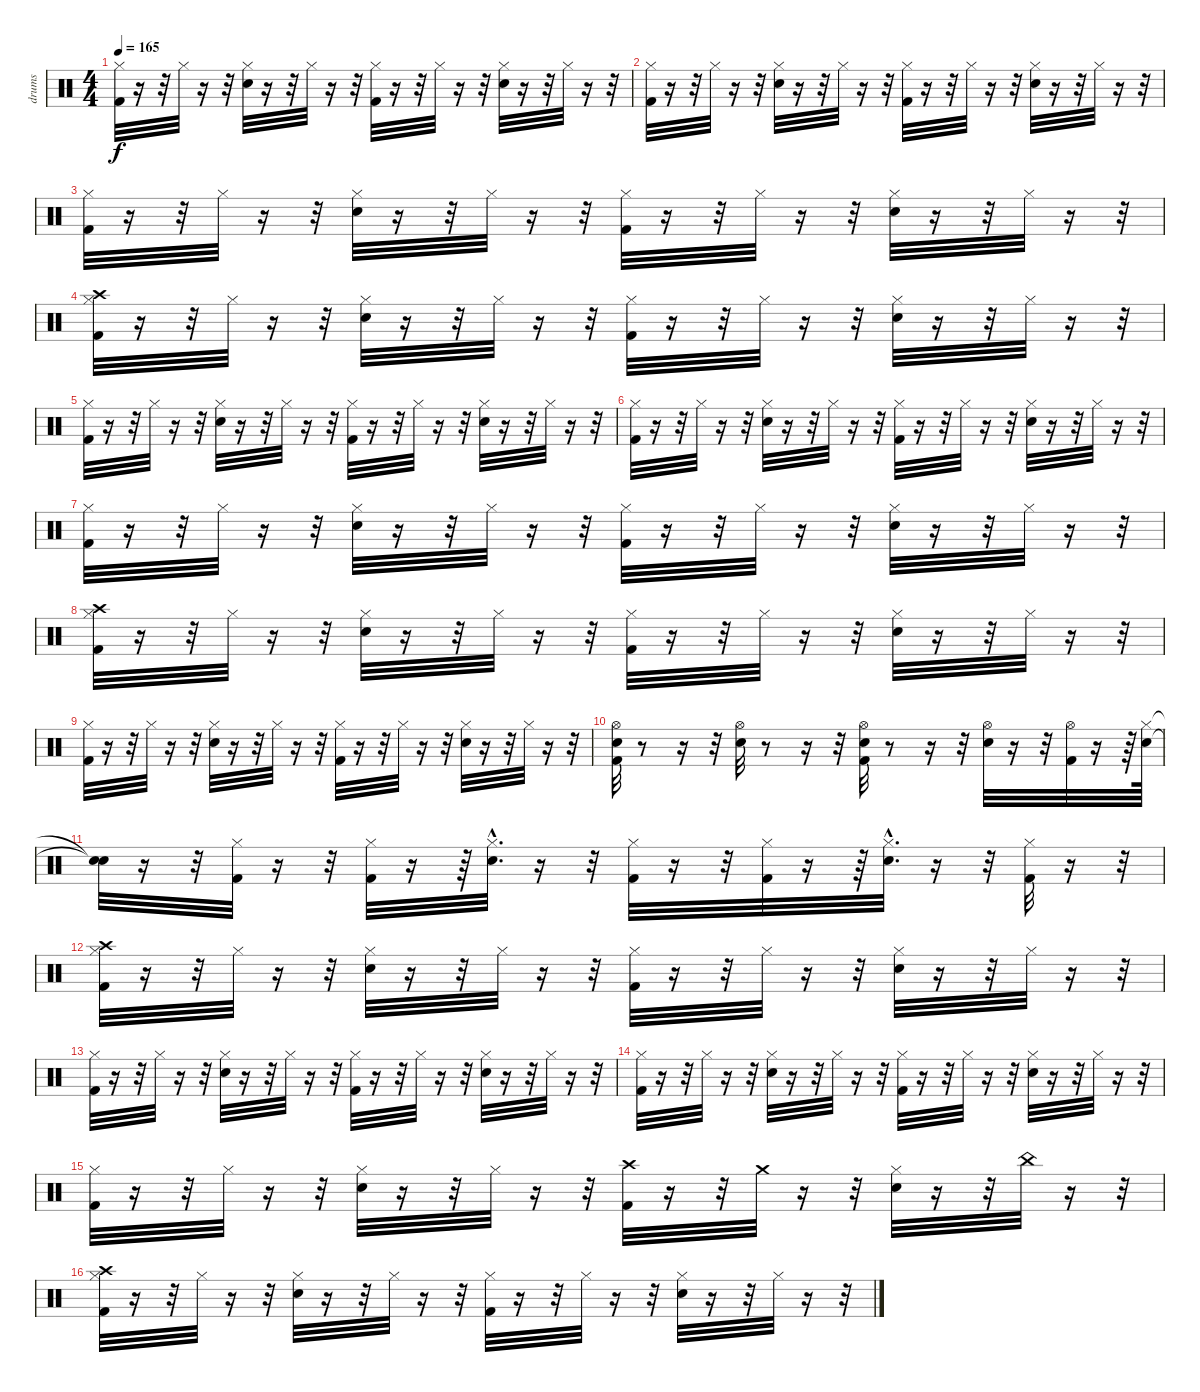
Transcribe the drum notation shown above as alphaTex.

\track ("drums" "drums") {instrument percussion}
\staff {score}
\articulation defaults
\ts (4 4)
\tempo 165
\clef neutral
\ks c
("Hi-Hat (closed)" "Kick (hit) 2").32{dy f} r.16 r.32 "Hi-Hat (closed)".32 r.16 r.32 ("Hi-Hat (closed)" "Electric Snare (hit)").32 r.16 r.32 "Hi-Hat (closed)".32 r.16 r.32 ("Hi-Hat (closed)" "Kick (hit) 2").32 r.16 r.32 "Hi-Hat (closed)".32 r.16 r.32 ("Hi-Hat (closed)" "Electric Snare (hit)").32 r.16 r.32 "Hi-Hat (closed)".32 r.16 r.32 |
("Hi-Hat (closed)" "Kick (hit) 2").32 r.16 r.32 "Hi-Hat (closed)".32 r.16 r.32 ("Hi-Hat (closed)" "Electric Snare (hit)").32 r.16 r.32 "Hi-Hat (closed)".32 r.16 r.32 ("Hi-Hat (closed)" "Kick (hit) 2").32 r.16 r.32 "Hi-Hat (closed)".32 r.16 r.32 ("Hi-Hat (closed)" "Electric Snare (hit)").32 r.16 r.32 "Hi-Hat (closed)".32 r.16 r.32 |
("Hi-Hat (closed)" "Kick (hit) 2").32 r.16 r.32 "Hi-Hat (closed)".32 r.16 r.32 ("Hi-Hat (closed)" "Electric Snare (hit)").32 r.16 r.32 "Hi-Hat (closed)".32 r.16 r.32 ("Hi-Hat (closed)" "Kick (hit) 2").32 r.16 r.32 "Hi-Hat (closed)".32 r.16 r.32 ("Hi-Hat (closed)" "Electric Snare (hit)").32 r.16 r.32 "Hi-Hat (closed)".32 r.16 r.32 |
("Crash high (hit)" "Hi-Hat (closed)" "Kick (hit) 2").32 r.16 r.32 "Hi-Hat (closed)".32 r.16 r.32 ("Hi-Hat (closed)" "Electric Snare (hit)").32 r.16 r.32 "Hi-Hat (closed)".32 r.16 r.32 ("Hi-Hat (closed)" "Kick (hit) 2").32 r.16 r.32 "Hi-Hat (closed)".32 r.16 r.32 ("Hi-Hat (closed)" "Electric Snare (hit)").32 r.16 r.32 "Hi-Hat (closed)".32 r.16 r.32 |
("Hi-Hat (closed)" "Kick (hit) 2").32 r.16 r.32 "Hi-Hat (closed)".32 r.16 r.32 ("Hi-Hat (closed)" "Electric Snare (hit)").32 r.16 r.32 "Hi-Hat (closed)".32 r.16 r.32 ("Hi-Hat (closed)" "Kick (hit) 2").32 r.16 r.32 "Hi-Hat (closed)".32 r.16 r.32 ("Hi-Hat (closed)" "Electric Snare (hit)").32 r.16 r.32 "Hi-Hat (closed)".32 r.16 r.32 |
("Hi-Hat (closed)" "Kick (hit) 2").32 r.16 r.32 "Hi-Hat (closed)".32 r.16 r.32 ("Hi-Hat (closed)" "Electric Snare (hit)").32 r.16 r.32 "Hi-Hat (closed)".32 r.16 r.32 ("Hi-Hat (closed)" "Kick (hit) 2").32 r.16 r.32 "Hi-Hat (closed)".32 r.16 r.32 ("Hi-Hat (closed)" "Electric Snare (hit)").32 r.16 r.32 "Hi-Hat (closed)".32 r.16 r.32 |
("Hi-Hat (closed)" "Kick (hit) 2").32 r.16 r.32 "Hi-Hat (closed)".32 r.16 r.32 ("Hi-Hat (closed)" "Electric Snare (hit)").32 r.16 r.32 "Hi-Hat (closed)".32 r.16 r.32 ("Hi-Hat (closed)" "Kick (hit) 2").32 r.16 r.32 "Hi-Hat (closed)".32 r.16 r.32 ("Hi-Hat (closed)" "Electric Snare (hit)").32 r.16 r.32 "Hi-Hat (closed)".32 r.16 r.32 |
("Crash high (hit)" "Hi-Hat (closed)" "Kick (hit) 2").32 r.16 r.32 "Hi-Hat (closed)".32 r.16 r.32 ("Hi-Hat (closed)" "Electric Snare (hit)").32 r.16 r.32 "Hi-Hat (closed)".32 r.16 r.32 ("Hi-Hat (closed)" "Kick (hit) 2").32 r.16 r.32 "Hi-Hat (closed)".32 r.16 r.32 ("Hi-Hat (closed)" "Electric Snare (hit)").32 r.16 r.32 "Hi-Hat (closed)".32 r.16 r.32 |
("Hi-Hat (closed)" "Kick (hit) 2").32 r.16 r.32 "Hi-Hat (closed)".32 r.16 r.32 ("Hi-Hat (closed)" "Electric Snare (hit)").32 r.16 r.32 "Hi-Hat (closed)".32 r.16 r.32 ("Hi-Hat (closed)" "Kick (hit) 2").32 r.16 r.32 "Hi-Hat (closed)".32 r.16 r.32 ("Hi-Hat (closed)" "Electric Snare (hit)").32 r.16 r.32 "Hi-Hat (closed)".32 r.16 r.32 |
("Electric Snare (hit)" "Hi-Hat (open)" "Kick (hit) 2").32 r.8 r.16 r.32 ("Electric Snare (hit)" "Hi-Hat (open)").32 r.8 r.16 r.32 ("Electric Snare (hit)" "Hi-Hat (open)" "Kick (hit) 2").32 r.8 r.16 r.32 ("Hi-Hat (open)" "Electric Snare (hit)").32 r.16 r.32 ("Kick (hit) 2" "Hi-Hat (open)").32 r.16 r.64 ("Hi-Hat (closed)" "Electric Snare (hit)").64 |
("Snare (hit)"{t} "Snare (hit)"{t}).32 r.16 r.32 ("Kick (hit) 2" "Hi-Hat (closed)").32 r.16 r.32 ("Hi-Hat (closed)" "Kick (hit) 2").32 r.16 r.64 ("Electric Snare (hit)"{hac} "Hi-Hat (closed)"{hac}).32{d} r.16 r.32 ("Hi-Hat (closed)" "Kick (hit) 2").32 r.16 r.32 ("Hi-Hat (closed)" "Kick (hit) 2").32 r.16 r.64 ("Hi-Hat (closed)"{hac} "Electric Snare (hit)"{hac}).32{d} r.16 r.32 ("Kick (hit) 2" "Hi-Hat (closed)").32 r.16 r.32 |
("Crash high (hit)" "Hi-Hat (closed)" "Kick (hit) 2").32 r.16 r.32 "Hi-Hat (closed)".32 r.16 r.32 ("Hi-Hat (closed)" "Electric Snare (hit)").32 r.16 r.32 "Hi-Hat (closed)".32 r.16 r.32 ("Hi-Hat (closed)" "Kick (hit) 2").32 r.16 r.32 "Hi-Hat (closed)".32 r.16 r.32 ("Hi-Hat (closed)" "Electric Snare (hit)").32 r.16 r.32 "Hi-Hat (closed)".32 r.16 r.32 |
("Hi-Hat (closed)" "Kick (hit) 2").32 r.16 r.32 "Hi-Hat (closed)".32 r.16 r.32 ("Hi-Hat (closed)" "Electric Snare (hit)").32 r.16 r.32 "Hi-Hat (closed)".32 r.16 r.32 ("Hi-Hat (closed)" "Kick (hit) 2").32 r.16 r.32 "Hi-Hat (closed)".32 r.16 r.32 ("Hi-Hat (closed)" "Electric Snare (hit)").32 r.16 r.32 "Hi-Hat (closed)".32 r.16 r.32 |
("Hi-Hat (closed)" "Kick (hit) 2").32 r.16 r.32 "Hi-Hat (closed)".32 r.16 r.32 ("Hi-Hat (closed)" "Electric Snare (hit)").32 r.16 r.32 "Hi-Hat (closed)".32 r.16 r.32 ("Hi-Hat (closed)" "Kick (hit) 2").32 r.16 r.32 "Hi-Hat (closed)".32 r.16 r.32 ("Hi-Hat (closed)" "Electric Snare (hit)").32 r.16 r.32 "Hi-Hat (closed)".32 r.16 r.32 |
("Hi-Hat (closed)" "Kick (hit) 2").32 r.16 r.32 "Hi-Hat (closed)".32 r.16 r.32 ("Hi-Hat (closed)" "Electric Snare (hit)").32 r.16 r.32 "Hi-Hat (closed)".32 r.16 r.32 ("Crash high (hit)" "Kick (hit) 2").32 r.16 r.32 "Crash medium (hit)".32 r.16 r.32 ("Hi-Hat (closed)" "Electric Snare (hit)").32 r.16 r.32 "China (hit)".32 r.16 r.32 |
("Crash high (hit)" "Hi-Hat (closed)" "Kick (hit) 2").32 r.16 r.32 "Hi-Hat (closed)".32 r.16 r.32 ("Hi-Hat (closed)" "Electric Snare (hit)").32 r.16 r.32 "Hi-Hat (closed)".32 r.16 r.32 ("Hi-Hat (closed)" "Kick (hit) 2").32 r.16 r.32 "Hi-Hat (closed)".32 r.16 r.32 ("Hi-Hat (closed)" "Electric Snare (hit)").32 r.16 r.32 "Hi-Hat (closed)".32 r.16 r.32
